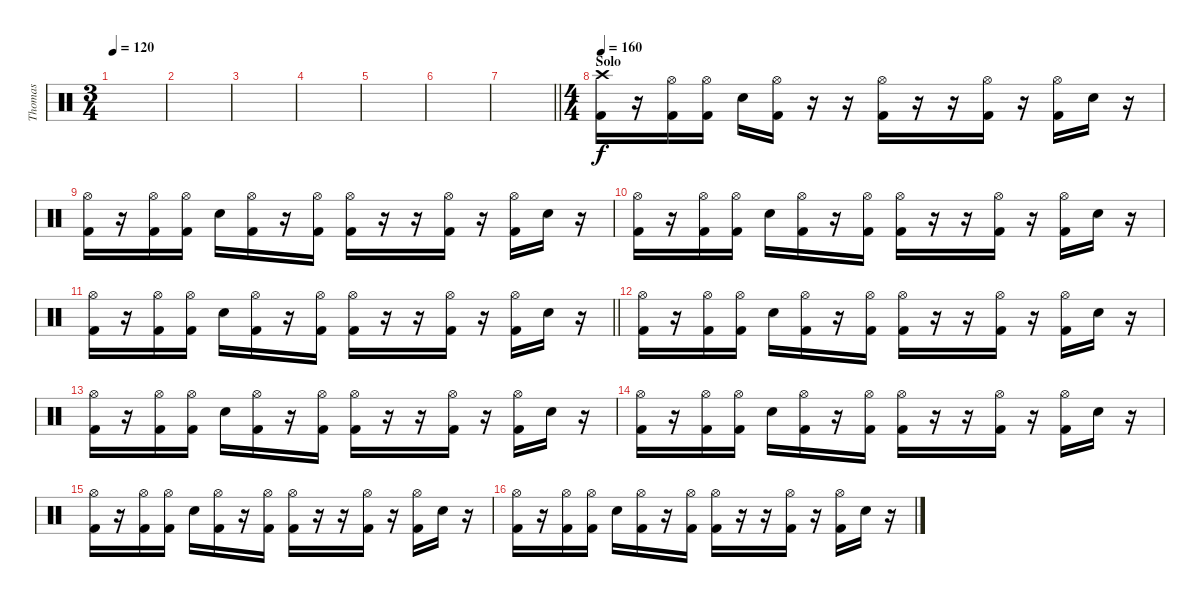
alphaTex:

\track ("Thomas " "Thomas ") {instrument percussion}
\staff {score}
\articulation defaults
\ts (3 4)
\tempo 120
\clef neutral
\ks c
|
|
|
|
|
|
\barLineRight lightlight
|
\ts (4 4)
\section ("" "Solo")
\tempo 160
("Crash high (hit)" "Kick (hit) 2").16 r.16 ("Hi-Hat (open)" "Kick (hit) 2").16 ("Hi-Hat (open)" "Kick (hit) 2").16 "Electric Snare (hit)".16 ("Hi-Hat (open)" "Kick (hit) 2").16 r.16 r.16 ("Hi-Hat (open)" "Kick (hit) 2").16 r.16 r.16 ("Hi-Hat (open)" "Kick (hit) 2").16 r.16 ("Hi-Hat (open)" "Kick (hit) 2").16 "Electric Snare (hit)".16 r.16 |
("Hi-Hat (open)" "Kick (hit) 2").16 r.16 ("Hi-Hat (open)" "Kick (hit) 2").16 ("Hi-Hat (open)" "Kick (hit) 2").16 "Electric Snare (hit)".16 ("Hi-Hat (open)" "Kick (hit) 2").16 r.16 ("Hi-Hat (open)" "Kick (hit) 2").16 ("Hi-Hat (open)" "Kick (hit) 2").16 r.16 r.16 ("Hi-Hat (open)" "Kick (hit) 2").16 r.16 ("Hi-Hat (open)" "Kick (hit) 2").16 "Electric Snare (hit)".16 r.16 |
("Hi-Hat (open)" "Kick (hit) 2").16 r.16 ("Hi-Hat (open)" "Kick (hit) 2").16 ("Hi-Hat (open)" "Kick (hit) 2").16 "Electric Snare (hit)".16 ("Hi-Hat (open)" "Kick (hit) 2").16 r.16 ("Hi-Hat (open)" "Kick (hit) 2").16 ("Hi-Hat (open)" "Kick (hit) 2").16 r.16 r.16 ("Hi-Hat (open)" "Kick (hit) 2").16 r.16 ("Hi-Hat (open)" "Kick (hit) 2").16 "Electric Snare (hit)".16 r.16 |
\barLineRight lightlight
("Hi-Hat (open)" "Kick (hit) 2").16 r.16 ("Hi-Hat (open)" "Kick (hit) 2").16 ("Hi-Hat (open)" "Kick (hit) 2").16 "Electric Snare (hit)".16 ("Hi-Hat (open)" "Kick (hit) 2").16 r.16 ("Hi-Hat (open)" "Kick (hit) 2").16 ("Hi-Hat (open)" "Kick (hit) 2").16 r.16 r.16 ("Hi-Hat (open)" "Kick (hit) 2").16 r.16 ("Hi-Hat (open)" "Kick (hit) 2").16 "Electric Snare (hit)".16 r.16 |
("Hi-Hat (open)" "Kick (hit) 2").16 r.16 ("Hi-Hat (open)" "Kick (hit) 2").16 ("Hi-Hat (open)" "Kick (hit) 2").16 "Electric Snare (hit)".16 ("Hi-Hat (open)" "Kick (hit) 2").16 r.16 ("Hi-Hat (open)" "Kick (hit) 2").16 ("Hi-Hat (open)" "Kick (hit) 2").16 r.16 r.16 ("Hi-Hat (open)" "Kick (hit) 2").16 r.16 ("Hi-Hat (open)" "Kick (hit) 2").16 "Electric Snare (hit)".16 r.16 |
("Hi-Hat (open)" "Kick (hit) 2").16 r.16 ("Hi-Hat (open)" "Kick (hit) 2").16 ("Hi-Hat (open)" "Kick (hit) 2").16 "Electric Snare (hit)".16 ("Hi-Hat (open)" "Kick (hit) 2").16 r.16 ("Hi-Hat (open)" "Kick (hit) 2").16 ("Hi-Hat (open)" "Kick (hit) 2").16 r.16 r.16 ("Hi-Hat (open)" "Kick (hit) 2").16 r.16 ("Hi-Hat (open)" "Kick (hit) 2").16 "Electric Snare (hit)".16 r.16 |
("Hi-Hat (open)" "Kick (hit) 2").16 r.16 ("Hi-Hat (open)" "Kick (hit) 2").16 ("Hi-Hat (open)" "Kick (hit) 2").16 "Electric Snare (hit)".16 ("Hi-Hat (open)" "Kick (hit) 2").16 r.16 ("Hi-Hat (open)" "Kick (hit) 2").16 ("Hi-Hat (open)" "Kick (hit) 2").16 r.16 r.16 ("Hi-Hat (open)" "Kick (hit) 2").16 r.16 ("Hi-Hat (open)" "Kick (hit) 2").16 "Electric Snare (hit)".16 r.16 |
("Hi-Hat (open)" "Kick (hit) 2").16 r.16 ("Hi-Hat (open)" "Kick (hit) 2").16 ("Hi-Hat (open)" "Kick (hit) 2").16 "Electric Snare (hit)".16 ("Hi-Hat (open)" "Kick (hit) 2").16 r.16 ("Hi-Hat (open)" "Kick (hit) 2").16 ("Hi-Hat (open)" "Kick (hit) 2").16 r.16 r.16 ("Hi-Hat (open)" "Kick (hit) 2").16 r.16 ("Hi-Hat (open)" "Kick (hit) 2").16 "Electric Snare (hit)".16 r.16 |
("Hi-Hat (open)" "Kick (hit) 2").16 r.16 ("Hi-Hat (open)" "Kick (hit) 2").16 ("Hi-Hat (open)" "Kick (hit) 2").16 "Electric Snare (hit)".16 ("Hi-Hat (open)" "Kick (hit) 2").16 r.16 ("Hi-Hat (open)" "Kick (hit) 2").16 ("Hi-Hat (open)" "Kick (hit) 2").16 r.16 r.16 ("Hi-Hat (open)" "Kick (hit) 2").16 r.16 ("Hi-Hat (open)" "Kick (hit) 2").16 "Electric Snare (hit)".16 r.16
